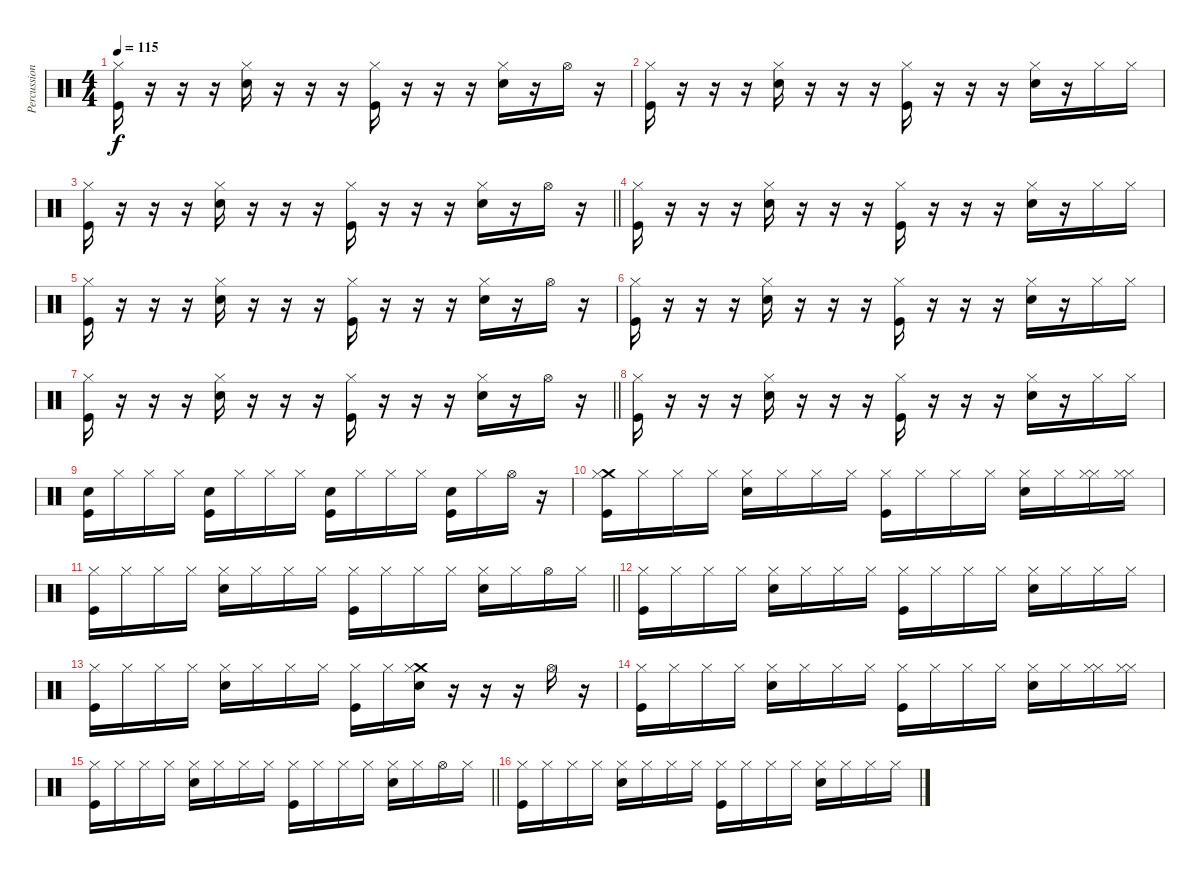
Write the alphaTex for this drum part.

\track ("Percussions" "Percussion") {instrument percussion}
\staff {score}
\articulation defaults
\ts (4 4)
\tempo 115
\clef neutral
\ks c
("Kick (hit)" "Hi-Hat (closed)").16{dy f} r.16 r.16 r.16 ("Snare (hit) 2" "Hi-Hat (closed)").16 r.16 r.16 r.16 ("Kick (hit)" "Hi-Hat (closed)").16 r.16 r.16 r.16 ("Snare (hit) 2" "Hi-Hat (closed)").16 r.16 "Hi-Hat (open)".16 r.16 |
("Kick (hit)" "Hi-Hat (closed)").16 r.16 r.16 r.16 ("Snare (hit) 2" "Hi-Hat (closed)").16 r.16 r.16 r.16 ("Kick (hit)" "Hi-Hat (closed)").16 r.16 r.16 r.16 ("Snare (hit) 2" "Hi-Hat (closed)").16 r.16 "Hi-Hat (closed)".16 "Hi-Hat (closed)".16 |
\barLineRight lightlight
("Kick (hit)" "Hi-Hat (closed)").16 r.16 r.16 r.16 ("Snare (hit) 2" "Hi-Hat (closed)").16 r.16 r.16 r.16 ("Kick (hit)" "Hi-Hat (closed)").16 r.16 r.16 r.16 ("Snare (hit) 2" "Hi-Hat (closed)").16 r.16 "Hi-Hat (open)".16 r.16 |
("Kick (hit)" "Hi-Hat (closed)").16 r.16 r.16 r.16 ("Snare (hit) 2" "Hi-Hat (closed)").16 r.16 r.16 r.16 ("Kick (hit)" "Hi-Hat (closed)").16 r.16 r.16 r.16 ("Snare (hit) 2" "Hi-Hat (closed)").16 r.16 "Hi-Hat (closed)".16 "Hi-Hat (closed)".16 |
("Kick (hit)" "Hi-Hat (closed)").16 r.16 r.16 r.16 ("Snare (hit) 2" "Hi-Hat (closed)").16 r.16 r.16 r.16 ("Kick (hit)" "Hi-Hat (closed)").16 r.16 r.16 r.16 ("Snare (hit) 2" "Hi-Hat (closed)").16 r.16 "Hi-Hat (open)".16 r.16 |
("Kick (hit)" "Hi-Hat (closed)").16 r.16 r.16 r.16 ("Snare (hit) 2" "Hi-Hat (closed)").16 r.16 r.16 r.16 ("Kick (hit)" "Hi-Hat (closed)").16 r.16 r.16 r.16 ("Snare (hit) 2" "Hi-Hat (closed)").16 r.16 "Hi-Hat (closed)".16 "Hi-Hat (closed)".16 |
\barLineRight lightlight
("Kick (hit)" "Hi-Hat (closed)").16 r.16 r.16 r.16 ("Snare (hit) 2" "Hi-Hat (closed)").16 r.16 r.16 r.16 ("Kick (hit)" "Hi-Hat (closed)").16 r.16 r.16 r.16 ("Snare (hit) 2" "Hi-Hat (closed)").16 r.16 "Hi-Hat (open)".16 r.16 |
("Kick (hit)" "Hi-Hat (closed)").16 r.16 r.16 r.16 ("Snare (hit) 2" "Hi-Hat (closed)").16 r.16 r.16 r.16 ("Kick (hit)" "Hi-Hat (closed)").16 r.16 r.16 r.16 ("Snare (hit) 2" "Hi-Hat (closed)").16 r.16 "Hi-Hat (closed)".16 "Hi-Hat (closed)".16 |
("Snare (hit) 2" "Kick (hit)").16 "Hi-Hat (closed)".16 "Hi-Hat (closed)".16 "Hi-Hat (closed)".16 ("Snare (hit) 2" "Kick (hit)").16 "Hi-Hat (closed)".16 "Hi-Hat (closed)".16 "Hi-Hat (closed)".16 ("Snare (hit) 2" "Kick (hit)").16 "Hi-Hat (closed)".16 "Hi-Hat (closed)".16 "Hi-Hat (closed)".16 ("Snare (hit) 2" "Kick (hit)").16 "Hi-Hat (closed)".16 "Hi-Hat (open)".16 r.16 |
("Crash medium (hit)" "Kick (hit)" "Hi-Hat (closed)").16 "Hi-Hat (closed)".16 "Hi-Hat (closed)".16 "Hi-Hat (closed)".16 ("Snare (hit) 2" "Hi-Hat (closed)").16 "Hi-Hat (closed)".16 "Hi-Hat (closed)".16 "Hi-Hat (closed)".16 ("Kick (hit)" "Hi-Hat (closed)").16 "Hi-Hat (closed)".16 "Hi-Hat (closed)".16 "Hi-Hat (closed)".16 ("Snare (hit) 2" "Hi-Hat (closed)").16 "Hi-Hat (closed)".16 ("Hi-Hat (closed)" "Hi-Hat (closed)").16 ("Hi-Hat (closed)" "Hi-Hat (closed)").16 |
\barLineRight lightlight
("Kick (hit)" "Hi-Hat (closed)").16 "Hi-Hat (closed)".16 "Hi-Hat (closed)".16 "Hi-Hat (closed)".16 ("Snare (hit) 2" "Hi-Hat (closed)").16 "Hi-Hat (closed)".16 "Hi-Hat (closed)".16 "Hi-Hat (closed)".16 ("Kick (hit)" "Hi-Hat (closed)").16 "Hi-Hat (closed)".16 "Hi-Hat (closed)".16 "Hi-Hat (closed)".16 ("Snare (hit) 2" "Hi-Hat (closed)").16 "Hi-Hat (closed)".16 "Hi-Hat (open)".16 "Hi-Hat (closed)".16 |
("Kick (hit)" "Hi-Hat (closed)").16 "Hi-Hat (closed)".16 "Hi-Hat (closed)".16 "Hi-Hat (closed)".16 ("Snare (hit) 2" "Hi-Hat (closed)").16 "Hi-Hat (closed)".16 "Hi-Hat (closed)".16 "Hi-Hat (closed)".16 ("Kick (hit)" "Hi-Hat (closed)").16 "Hi-Hat (closed)".16 "Hi-Hat (closed)".16 "Hi-Hat (closed)".16 ("Snare (hit) 2" "Hi-Hat (closed)").16 "Hi-Hat (closed)".16 "Hi-Hat (closed)".16 "Hi-Hat (closed)".16 |
("Kick (hit)" "Hi-Hat (closed)").16 "Hi-Hat (closed)".16 "Hi-Hat (closed)".16 "Hi-Hat (closed)".16 ("Snare (hit) 2" "Hi-Hat (closed)").16 "Hi-Hat (closed)".16 "Hi-Hat (closed)".16 "Hi-Hat (closed)".16 ("Kick (hit)" "Hi-Hat (closed)").16 "Hi-Hat (closed)".16 ("Crash medium (hit)" "Snare (hit) 2" "Hi-Hat (closed)").16 r.16 r.16 r.16 "Hi-Hat (open)".16 r.16 |
("Kick (hit)" "Hi-Hat (closed)").16 "Hi-Hat (closed)".16 "Hi-Hat (closed)".16 "Hi-Hat (closed)".16 ("Snare (hit) 2" "Hi-Hat (closed)").16 "Hi-Hat (closed)".16 "Hi-Hat (closed)".16 "Hi-Hat (closed)".16 ("Kick (hit)" "Hi-Hat (closed)").16 "Hi-Hat (closed)".16 "Hi-Hat (closed)".16 "Hi-Hat (closed)".16 ("Snare (hit) 2" "Hi-Hat (closed)").16 "Hi-Hat (closed)".16 ("Hi-Hat (closed)" "Hi-Hat (closed)").16 ("Hi-Hat (closed)" "Hi-Hat (closed)").16 |
\barLineRight lightlight
("Kick (hit)" "Hi-Hat (closed)").16 "Hi-Hat (closed)".16 "Hi-Hat (closed)".16 "Hi-Hat (closed)".16 ("Snare (hit) 2" "Hi-Hat (closed)").16 "Hi-Hat (closed)".16 "Hi-Hat (closed)".16 "Hi-Hat (closed)".16 ("Kick (hit)" "Hi-Hat (closed)").16 "Hi-Hat (closed)".16 "Hi-Hat (closed)".16 "Hi-Hat (closed)".16 ("Snare (hit) 2" "Hi-Hat (closed)").16 "Hi-Hat (closed)".16 "Hi-Hat (open)".16 "Hi-Hat (closed)".16 |
("Kick (hit)" "Hi-Hat (closed)").16 "Hi-Hat (closed)".16 "Hi-Hat (closed)".16 "Hi-Hat (closed)".16 ("Snare (hit) 2" "Hi-Hat (closed)").16 "Hi-Hat (closed)".16 "Hi-Hat (closed)".16 "Hi-Hat (closed)".16 ("Kick (hit)" "Hi-Hat (closed)").16 "Hi-Hat (closed)".16 "Hi-Hat (closed)".16 "Hi-Hat (closed)".16 ("Snare (hit) 2" "Hi-Hat (closed)").16 "Hi-Hat (closed)".16 "Hi-Hat (closed)".16 "Hi-Hat (closed)".16
